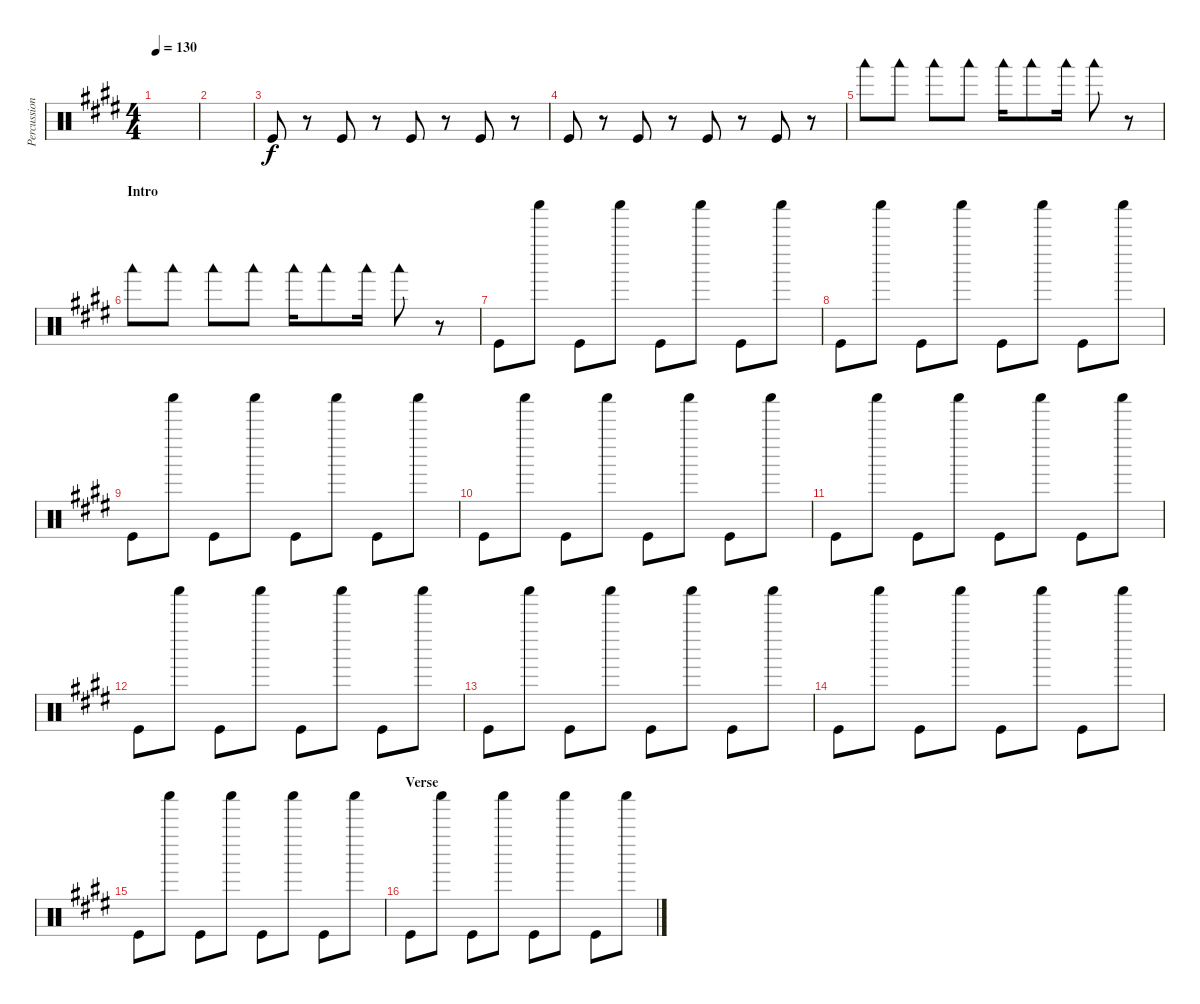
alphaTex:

\track ("Percussion" "Percussion") {instrument percussion}
\staff {score}
\articulation defaults
\ts (4 4)
\tempo 130
\clef neutral
\ks e
|
|
"Kick (hit)".8 r.8 "Kick (hit)".8 r.8 "Kick (hit)".8 r.8 "Kick (hit)".8 r.8 |
"Kick (hit)".8 r.8 "Kick (hit)".8 r.8 "Kick (hit)".8 r.8 "Kick (hit)".8 r.8 |
"Woodblock low (hit)".8 "Woodblock low (hit)".8 "Woodblock low (hit)".8 "Woodblock low (hit)".8 "Woodblock low (hit)".16 "Woodblock low (hit)".8 "Woodblock low (hit)".16 "Woodblock low (hit)".8 r.8 |
\section ("" "Intro")
"Woodblock low (hit)".8 "Woodblock low (hit)".8 "Woodblock low (hit)".8 "Woodblock low (hit)".8 "Woodblock low (hit)".16 "Woodblock low (hit)".8 "Woodblock low (hit)".16 "Woodblock low (hit)".8 r.8 |
"Kick (hit)".8 "Shaker (hit)".8 "Kick (hit)".8 "Shaker (hit)".8 "Kick (hit)".8 "Shaker (hit)".8 "Kick (hit)".8 "Shaker (hit)".8 |
"Kick (hit)".8 "Shaker (hit)".8 "Kick (hit)".8 "Shaker (hit)".8 "Kick (hit)".8 "Shaker (hit)".8 "Kick (hit)".8 "Shaker (hit)".8 |
"Kick (hit)".8 "Shaker (hit)".8 "Kick (hit)".8 "Shaker (hit)".8 "Kick (hit)".8 "Shaker (hit)".8 "Kick (hit)".8 "Shaker (hit)".8 |
"Kick (hit)".8 "Shaker (hit)".8 "Kick (hit)".8 "Shaker (hit)".8 "Kick (hit)".8 "Shaker (hit)".8 "Kick (hit)".8 "Shaker (hit)".8 |
"Kick (hit)".8 "Shaker (hit)".8 "Kick (hit)".8 "Shaker (hit)".8 "Kick (hit)".8 "Shaker (hit)".8 "Kick (hit)".8 "Shaker (hit)".8 |
"Kick (hit)".8 "Shaker (hit)".8 "Kick (hit)".8 "Shaker (hit)".8 "Kick (hit)".8 "Shaker (hit)".8 "Kick (hit)".8 "Shaker (hit)".8 |
"Kick (hit)".8 "Shaker (hit)".8 "Kick (hit)".8 "Shaker (hit)".8 "Kick (hit)".8 "Shaker (hit)".8 "Kick (hit)".8 "Shaker (hit)".8 |
"Kick (hit)".8 "Shaker (hit)".8 "Kick (hit)".8 "Shaker (hit)".8 "Kick (hit)".8 "Shaker (hit)".8 "Kick (hit)".8 "Shaker (hit)".8 |
"Kick (hit)".8 "Shaker (hit)".8 "Kick (hit)".8 "Shaker (hit)".8 "Kick (hit)".8 "Shaker (hit)".8 "Kick (hit)".8 "Shaker (hit)".8 |
\section ("" "Verse")
"Kick (hit)".8 "Shaker (hit)".8 "Kick (hit)".8 "Shaker (hit)".8 "Kick (hit)".8 "Shaker (hit)".8 "Kick (hit)".8 "Shaker (hit)".8
